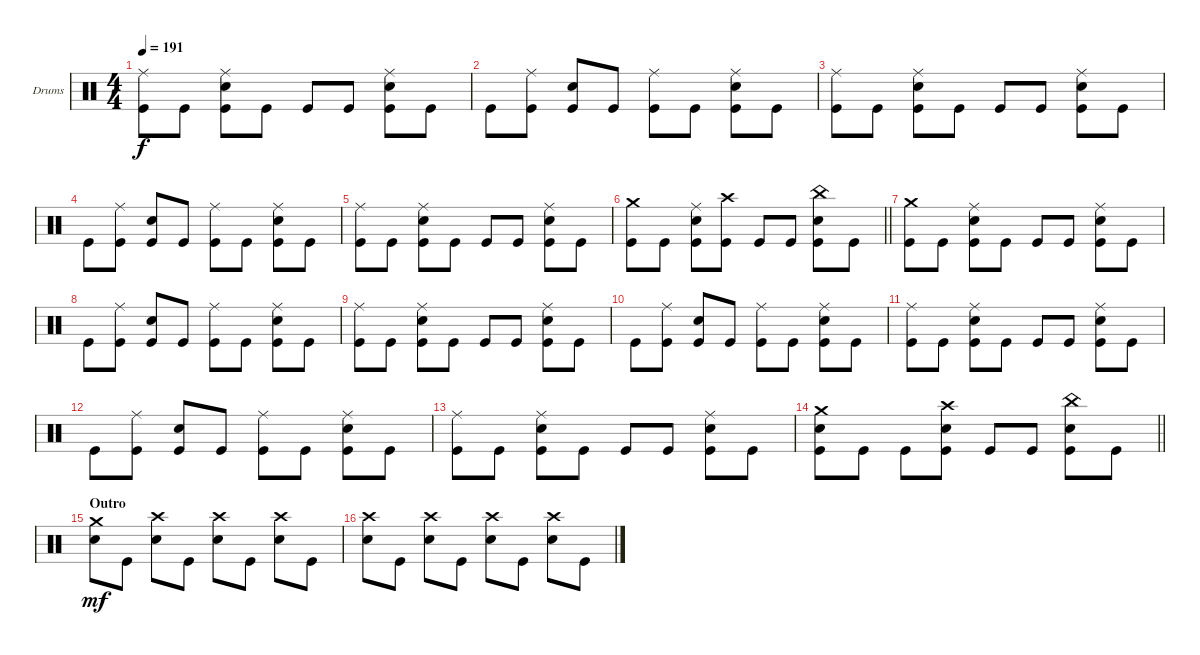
\bracketExtendMode groupsimilarinstruments
\firstSystemTrackNameOrientation horizontal
\otherSystemsTrackNameOrientation horizontal
\track ("Drumkit" "Drums") {instrument percussion}
\staff {score}
\articulation defaults
\ts (4 4)
\tempo 191
\clef neutral
\ks c
("Ride (middle)" "Kick (hit)").8{dy f} "Kick (hit)".8 ("Ride (middle)" "Snare (hit) 2" "Kick (hit)").8 "Kick (hit)".8 "Kick (hit)".8 "Kick (hit)".8 ("Ride (middle)" "Snare (hit) 2" "Kick (hit)").8 "Kick (hit)".8 |
"Kick (hit)".8 ("Ride (middle)" "Kick (hit)").8 ("Snare (hit) 2" "Kick (hit)").8 "Kick (hit)".8 ("Ride (middle)" "Kick (hit)").8 "Kick (hit)".8 ("Ride (middle)" "Snare (hit) 2" "Kick (hit)").8 "Kick (hit)".8 |
("Ride (middle)" "Kick (hit)").8 "Kick (hit)".8 ("Ride (middle)" "Snare (hit) 2" "Kick (hit)").8 "Kick (hit)".8 "Kick (hit)".8 "Kick (hit)".8 ("Ride (middle)" "Snare (hit) 2" "Kick (hit)").8 "Kick (hit)".8 |
"Kick (hit)".8 ("Ride (middle)" "Kick (hit)").8 ("Snare (hit) 2" "Kick (hit)").8 "Kick (hit)".8 ("Ride (middle)" "Kick (hit)").8 "Kick (hit)".8 ("Ride (middle)" "Snare (hit) 2" "Kick (hit)").8 "Kick (hit)".8 |
("Ride (middle)" "Kick (hit)").8 "Kick (hit)".8 ("Ride (middle)" "Snare (hit) 2" "Kick (hit)").8 "Kick (hit)".8 "Kick (hit)".8 "Kick (hit)".8 ("Ride (middle)" "Snare (hit) 2" "Kick (hit)").8 "Kick (hit)".8 |
\barLineRight lightlight
("Crash medium (hit)" "Kick (hit)").8 "Kick (hit)".8 ("Ride (middle)" "Snare (hit) 2" "Kick (hit)").8 ("Crash high (hit)" "Kick (hit)").8 "Kick (hit)".8 "Kick (hit)".8 ("China (hit)" "Snare (hit) 2" "Kick (hit)").8 "Kick (hit)".8 |
\section ("" "")
("Crash medium (hit)" "Kick (hit)").8 "Kick (hit)".8 ("Ride (middle)" "Snare (hit) 2" "Kick (hit)").8 "Kick (hit)".8 "Kick (hit)".8 "Kick (hit)".8 ("Ride (middle)" "Snare (hit) 2" "Kick (hit)").8 "Kick (hit)".8 |
"Kick (hit)".8 ("Ride (middle)" "Kick (hit)").8 ("Snare (hit) 2" "Kick (hit)").8 "Kick (hit)".8 ("Ride (middle)" "Kick (hit)").8 "Kick (hit)".8 ("Ride (middle)" "Snare (hit) 2" "Kick (hit)").8 "Kick (hit)".8 |
("Ride (middle)" "Kick (hit)").8 "Kick (hit)".8 ("Ride (middle)" "Snare (hit) 2" "Kick (hit)").8 "Kick (hit)".8 "Kick (hit)".8 "Kick (hit)".8 ("Ride (middle)" "Snare (hit) 2" "Kick (hit)").8 "Kick (hit)".8 |
"Kick (hit)".8 ("Ride (middle)" "Kick (hit)").8 ("Snare (hit) 2" "Kick (hit)").8 "Kick (hit)".8 ("Ride (middle)" "Kick (hit)").8 "Kick (hit)".8 ("Ride (middle)" "Snare (hit) 2" "Kick (hit)").8 "Kick (hit)".8 |
("Ride (middle)" "Kick (hit)").8 "Kick (hit)".8 ("Ride (middle)" "Snare (hit) 2" "Kick (hit)").8 "Kick (hit)".8 "Kick (hit)".8 "Kick (hit)".8 ("Ride (middle)" "Snare (hit) 2" "Kick (hit)").8 "Kick (hit)".8 |
"Kick (hit)".8 ("Ride (middle)" "Kick (hit)").8 ("Snare (hit) 2" "Kick (hit)").8 "Kick (hit)".8 ("Ride (middle)" "Kick (hit)").8 "Kick (hit)".8 ("Ride (middle)" "Snare (hit) 2" "Kick (hit)").8 "Kick (hit)".8 |
("Ride (middle)" "Kick (hit)").8 "Kick (hit)".8 ("Ride (middle)" "Snare (hit) 2" "Kick (hit)").8 "Kick (hit)".8 "Kick (hit)".8 "Kick (hit)".8 ("Ride (middle)" "Snare (hit) 2" "Kick (hit)").8 "Kick (hit)".8 |
\barLineRight lightlight
("Crash medium (hit)" "Snare (hit) 2" "Kick (hit)").8 "Kick (hit)".8 "Kick (hit)".8 ("Crash high (hit)" "Snare (hit) 2" "Kick (hit)").8 "Kick (hit)".8 "Kick (hit)".8 ("China (hit)" "Snare (hit) 2" "Kick (hit)").8 "Kick (hit)".8 |
\section ("" "Outro")
("Crash medium (hit)" "Snare (hit) 2").8{dy mf} "Kick (hit)".8 ("Crash high (hit)" "Snare (hit) 2").8 "Kick (hit)".8 ("Crash high (hit)" "Snare (hit) 2").8 "Kick (hit)".8 ("Crash high (hit)" "Snare (hit) 2").8 "Kick (hit)".8 |
("Crash high (hit)" "Snare (hit) 2").8 "Kick (hit)".8 ("Crash high (hit)" "Snare (hit) 2").8 "Kick (hit)".8 ("Crash high (hit)" "Snare (hit) 2").8 "Kick (hit)".8 ("Crash high (hit)" "Snare (hit) 2").8 "Kick (hit)".8
